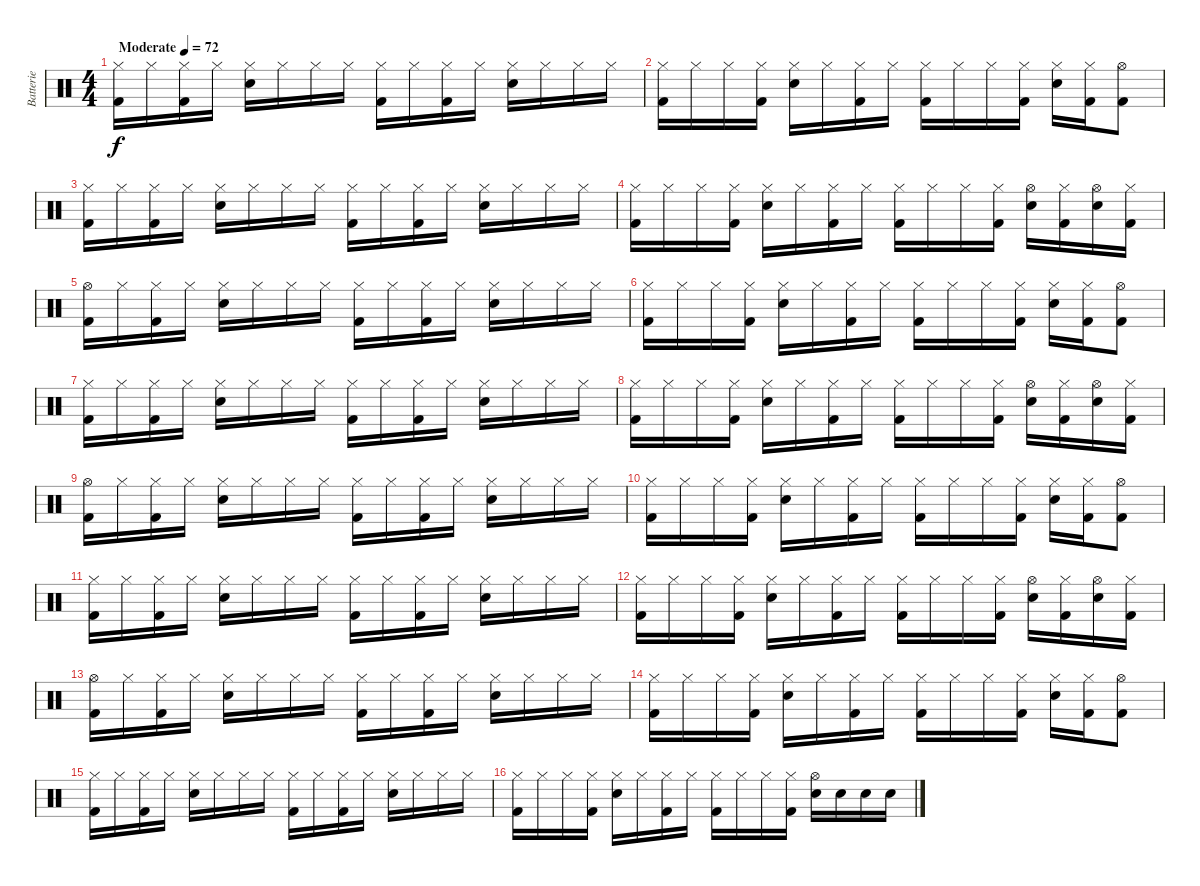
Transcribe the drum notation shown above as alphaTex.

\track ("Batterie" "Batterie") {instrument percussion}
\staff {score}
\articulation defaults
\ts (4 4)
\tempo (72 "Moderate")
\clef neutral
\ks c
("Hi-Hat (closed)" "Kick (hit) 2").16{dy f} "Hi-Hat (closed)".16 ("Hi-Hat (closed)" "Kick (hit) 2").16 "Hi-Hat (closed)".16 ("Hi-Hat (closed)" "Snare (hit) 2").16 "Hi-Hat (closed)".16 "Hi-Hat (closed)".16 "Hi-Hat (closed)".16 ("Hi-Hat (closed)" "Kick (hit) 2").16 "Hi-Hat (closed)".16 ("Hi-Hat (closed)" "Kick (hit) 2").16 "Hi-Hat (closed)".16 ("Hi-Hat (closed)" "Snare (hit) 2").16 "Hi-Hat (closed)".16 "Hi-Hat (closed)".16 "Hi-Hat (closed)".16 |
("Hi-Hat (closed)" "Kick (hit) 2").16 "Hi-Hat (closed)".16 "Hi-Hat (closed)".16 ("Hi-Hat (closed)" "Kick (hit) 2").16 ("Hi-Hat (closed)" "Snare (hit) 2").16 "Hi-Hat (closed)".16 ("Hi-Hat (closed)" "Kick (hit) 2").16 "Hi-Hat (closed)".16 ("Hi-Hat (closed)" "Kick (hit) 2").16 "Hi-Hat (closed)".16 "Hi-Hat (closed)".16 ("Hi-Hat (closed)" "Kick (hit) 2").16 ("Hi-Hat (closed)" "Snare (hit) 2").16 ("Hi-Hat (closed)" "Kick (hit) 2").16 ("Hi-Hat (open)" "Kick (hit) 2").8 |
("Hi-Hat (closed)" "Kick (hit) 2").16 "Hi-Hat (closed)".16 ("Hi-Hat (closed)" "Kick (hit) 2").16 "Hi-Hat (closed)".16 ("Hi-Hat (closed)" "Snare (hit) 2").16 "Hi-Hat (closed)".16 "Hi-Hat (closed)".16 "Hi-Hat (closed)".16 ("Hi-Hat (closed)" "Kick (hit) 2").16 "Hi-Hat (closed)".16 ("Hi-Hat (closed)" "Kick (hit) 2").16 "Hi-Hat (closed)".16 ("Hi-Hat (closed)" "Snare (hit) 2").16 "Hi-Hat (closed)".16 "Hi-Hat (closed)".16 "Hi-Hat (closed)".16 |
("Hi-Hat (closed)" "Kick (hit) 2").16 "Hi-Hat (closed)".16 "Hi-Hat (closed)".16 ("Hi-Hat (closed)" "Kick (hit) 2").16 ("Hi-Hat (closed)" "Snare (hit) 2").16 "Hi-Hat (closed)".16 ("Hi-Hat (closed)" "Kick (hit) 2").16 "Hi-Hat (closed)".16 ("Hi-Hat (closed)" "Kick (hit) 2").16 "Hi-Hat (closed)".16 "Hi-Hat (closed)".16 ("Hi-Hat (closed)" "Kick (hit) 2").16 ("Hi-Hat (open)" "Snare (hit) 2").16 ("Hi-Hat (closed)" "Kick (hit) 2").16 ("Hi-Hat (open)" "Snare (hit) 2").16 ("Hi-Hat (closed)" "Kick (hit) 2").16 |
("Hi-Hat (open)" "Kick (hit) 2").16 "Hi-Hat (closed)".16 ("Hi-Hat (closed)" "Kick (hit) 2").16 "Hi-Hat (closed)".16 ("Hi-Hat (closed)" "Snare (hit) 2").16 "Hi-Hat (closed)".16 "Hi-Hat (closed)".16 "Hi-Hat (closed)".16 ("Hi-Hat (closed)" "Kick (hit) 2").16 "Hi-Hat (closed)".16 ("Hi-Hat (closed)" "Kick (hit) 2").16 "Hi-Hat (closed)".16 ("Hi-Hat (closed)" "Snare (hit) 2").16 "Hi-Hat (closed)".16 "Hi-Hat (closed)".16 "Hi-Hat (closed)".16 |
("Hi-Hat (closed)" "Kick (hit) 2").16 "Hi-Hat (closed)".16 "Hi-Hat (closed)".16 ("Hi-Hat (closed)" "Kick (hit) 2").16 ("Hi-Hat (closed)" "Snare (hit) 2").16 "Hi-Hat (closed)".16 ("Hi-Hat (closed)" "Kick (hit) 2").16 "Hi-Hat (closed)".16 ("Hi-Hat (closed)" "Kick (hit) 2").16 "Hi-Hat (closed)".16 "Hi-Hat (closed)".16 ("Hi-Hat (closed)" "Kick (hit) 2").16 ("Hi-Hat (closed)" "Snare (hit) 2").16 ("Hi-Hat (closed)" "Kick (hit) 2").16 ("Hi-Hat (open)" "Kick (hit) 2").8 |
("Hi-Hat (closed)" "Kick (hit) 2").16 "Hi-Hat (closed)".16 ("Hi-Hat (closed)" "Kick (hit) 2").16 "Hi-Hat (closed)".16 ("Hi-Hat (closed)" "Snare (hit) 2").16 "Hi-Hat (closed)".16 "Hi-Hat (closed)".16 "Hi-Hat (closed)".16 ("Hi-Hat (closed)" "Kick (hit) 2").16 "Hi-Hat (closed)".16 ("Hi-Hat (closed)" "Kick (hit) 2").16 "Hi-Hat (closed)".16 ("Hi-Hat (closed)" "Snare (hit) 2").16 "Hi-Hat (closed)".16 "Hi-Hat (closed)".16 "Hi-Hat (closed)".16 |
("Hi-Hat (closed)" "Kick (hit) 2").16 "Hi-Hat (closed)".16 "Hi-Hat (closed)".16 ("Hi-Hat (closed)" "Kick (hit) 2").16 ("Hi-Hat (closed)" "Snare (hit) 2").16 "Hi-Hat (closed)".16 ("Hi-Hat (closed)" "Kick (hit) 2").16 "Hi-Hat (closed)".16 ("Hi-Hat (closed)" "Kick (hit) 2").16 "Hi-Hat (closed)".16 "Hi-Hat (closed)".16 ("Hi-Hat (closed)" "Kick (hit) 2").16 ("Hi-Hat (open)" "Snare (hit) 2").16 ("Hi-Hat (closed)" "Kick (hit) 2").16 ("Hi-Hat (open)" "Snare (hit) 2").16 ("Hi-Hat (closed)" "Kick (hit) 2").16 |
("Hi-Hat (open)" "Kick (hit) 2").16 "Hi-Hat (closed)".16 ("Hi-Hat (closed)" "Kick (hit) 2").16 "Hi-Hat (closed)".16 ("Hi-Hat (closed)" "Snare (hit) 2").16 "Hi-Hat (closed)".16 "Hi-Hat (closed)".16 "Hi-Hat (closed)".16 ("Hi-Hat (closed)" "Kick (hit) 2").16 "Hi-Hat (closed)".16 ("Hi-Hat (closed)" "Kick (hit) 2").16 "Hi-Hat (closed)".16 ("Hi-Hat (closed)" "Snare (hit) 2").16 "Hi-Hat (closed)".16 "Hi-Hat (closed)".16 "Hi-Hat (closed)".16 |
("Hi-Hat (closed)" "Kick (hit) 2").16 "Hi-Hat (closed)".16 "Hi-Hat (closed)".16 ("Hi-Hat (closed)" "Kick (hit) 2").16 ("Hi-Hat (closed)" "Snare (hit) 2").16 "Hi-Hat (closed)".16 ("Hi-Hat (closed)" "Kick (hit) 2").16 "Hi-Hat (closed)".16 ("Hi-Hat (closed)" "Kick (hit) 2").16 "Hi-Hat (closed)".16 "Hi-Hat (closed)".16 ("Hi-Hat (closed)" "Kick (hit) 2").16 ("Hi-Hat (closed)" "Snare (hit) 2").16 ("Hi-Hat (closed)" "Kick (hit) 2").16 ("Hi-Hat (open)" "Kick (hit) 2").8 |
("Hi-Hat (closed)" "Kick (hit) 2").16 "Hi-Hat (closed)".16 ("Hi-Hat (closed)" "Kick (hit) 2").16 "Hi-Hat (closed)".16 ("Hi-Hat (closed)" "Snare (hit) 2").16 "Hi-Hat (closed)".16 "Hi-Hat (closed)".16 "Hi-Hat (closed)".16 ("Hi-Hat (closed)" "Kick (hit) 2").16 "Hi-Hat (closed)".16 ("Hi-Hat (closed)" "Kick (hit) 2").16 "Hi-Hat (closed)".16 ("Hi-Hat (closed)" "Snare (hit) 2").16 "Hi-Hat (closed)".16 "Hi-Hat (closed)".16 "Hi-Hat (closed)".16 |
("Hi-Hat (closed)" "Kick (hit) 2").16 "Hi-Hat (closed)".16 "Hi-Hat (closed)".16 ("Hi-Hat (closed)" "Kick (hit) 2").16 ("Hi-Hat (closed)" "Snare (hit) 2").16 "Hi-Hat (closed)".16 ("Hi-Hat (closed)" "Kick (hit) 2").16 "Hi-Hat (closed)".16 ("Hi-Hat (closed)" "Kick (hit) 2").16 "Hi-Hat (closed)".16 "Hi-Hat (closed)".16 ("Hi-Hat (closed)" "Kick (hit) 2").16 ("Hi-Hat (open)" "Snare (hit) 2").16 ("Hi-Hat (closed)" "Kick (hit) 2").16 ("Hi-Hat (open)" "Snare (hit) 2").16 ("Hi-Hat (closed)" "Kick (hit) 2").16 |
("Hi-Hat (open)" "Kick (hit) 2").16 "Hi-Hat (closed)".16 ("Hi-Hat (closed)" "Kick (hit) 2").16 "Hi-Hat (closed)".16 ("Hi-Hat (closed)" "Snare (hit) 2").16 "Hi-Hat (closed)".16 "Hi-Hat (closed)".16 "Hi-Hat (closed)".16 ("Hi-Hat (closed)" "Kick (hit) 2").16 "Hi-Hat (closed)".16 ("Hi-Hat (closed)" "Kick (hit) 2").16 "Hi-Hat (closed)".16 ("Hi-Hat (closed)" "Snare (hit) 2").16 "Hi-Hat (closed)".16 "Hi-Hat (closed)".16 "Hi-Hat (closed)".16 |
("Hi-Hat (closed)" "Kick (hit) 2").16 "Hi-Hat (closed)".16 "Hi-Hat (closed)".16 ("Hi-Hat (closed)" "Kick (hit) 2").16 ("Hi-Hat (closed)" "Snare (hit) 2").16 "Hi-Hat (closed)".16 ("Hi-Hat (closed)" "Kick (hit) 2").16 "Hi-Hat (closed)".16 ("Hi-Hat (closed)" "Kick (hit) 2").16 "Hi-Hat (closed)".16 "Hi-Hat (closed)".16 ("Hi-Hat (closed)" "Kick (hit) 2").16 ("Hi-Hat (closed)" "Snare (hit) 2").16 ("Hi-Hat (closed)" "Kick (hit) 2").16 ("Hi-Hat (open)" "Kick (hit) 2").8 |
("Hi-Hat (closed)" "Kick (hit) 2").16 "Hi-Hat (closed)".16 ("Hi-Hat (closed)" "Kick (hit) 2").16 "Hi-Hat (closed)".16 ("Hi-Hat (closed)" "Snare (hit) 2").16 "Hi-Hat (closed)".16 "Hi-Hat (closed)".16 "Hi-Hat (closed)".16 ("Hi-Hat (closed)" "Kick (hit) 2").16 "Hi-Hat (closed)".16 ("Hi-Hat (closed)" "Kick (hit) 2").16 "Hi-Hat (closed)".16 ("Hi-Hat (closed)" "Snare (hit) 2").16 "Hi-Hat (closed)".16 "Hi-Hat (closed)".16 "Hi-Hat (closed)".16 |
("Hi-Hat (closed)" "Kick (hit) 2").16 "Hi-Hat (closed)".16 "Hi-Hat (closed)".16 ("Hi-Hat (closed)" "Kick (hit) 2").16 ("Hi-Hat (closed)" "Snare (hit) 2").16 "Hi-Hat (closed)".16 ("Hi-Hat (closed)" "Kick (hit) 2").16 "Hi-Hat (closed)".16 ("Hi-Hat (closed)" "Kick (hit) 2").16 "Hi-Hat (closed)".16 "Hi-Hat (closed)".16 ("Hi-Hat (closed)" "Kick (hit) 2").16 ("Hi-Hat (open)" "Snare (hit) 2").16 "Snare (hit) 2".16 "Snare (hit) 2".16 "Snare (hit) 2".16
